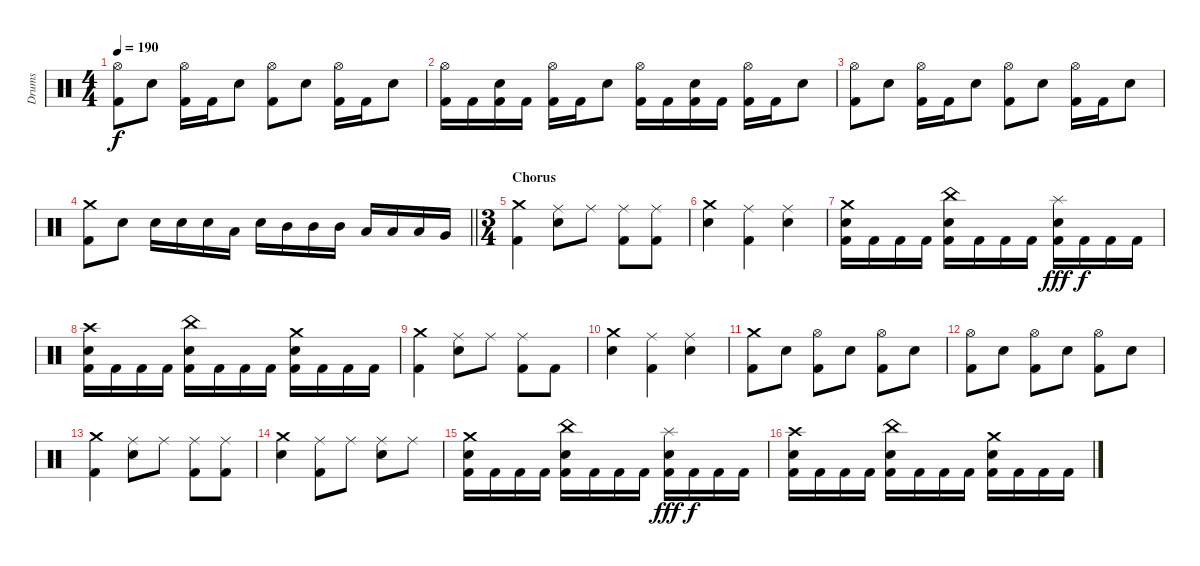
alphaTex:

\track ("Drums" "Drums") {instrument percussion}
\staff {score}
\articulation defaults
\ts (4 4)
\tempo 190
\clef neutral
\ks c
("Hi-Hat (open)" "Kick (hit) 2").8{dy f} "Electric Snare (hit)".8 ("Hi-Hat (open)" "Kick (hit) 2").16 "Kick (hit) 2".16 "Electric Snare (hit)".8 ("Hi-Hat (open)" "Kick (hit) 2").8 "Electric Snare (hit)".8 ("Hi-Hat (open)" "Kick (hit) 2").16 "Kick (hit) 2".16 "Electric Snare (hit)".8 |
("Hi-Hat (open)" "Kick (hit) 2").16 "Kick (hit) 2".16 ("Electric Snare (hit)" "Kick (hit) 2").16 "Kick (hit) 2".16 ("Hi-Hat (open)" "Kick (hit) 2").16 "Kick (hit) 2".16 "Electric Snare (hit)".8 ("Hi-Hat (open)" "Kick (hit) 2").16 "Kick (hit) 2".16 ("Electric Snare (hit)" "Kick (hit) 2").16 "Kick (hit) 2".16 ("Hi-Hat (open)" "Kick (hit) 2").16 "Kick (hit) 2".16 "Electric Snare (hit)".8 |
("Hi-Hat (open)" "Kick (hit) 2").8 "Electric Snare (hit)".8 ("Hi-Hat (open)" "Kick (hit) 2").16 "Kick (hit) 2".16 "Electric Snare (hit)".8 ("Hi-Hat (open)" "Kick (hit) 2").8 "Electric Snare (hit)".8 ("Hi-Hat (open)" "Kick (hit) 2").16 "Kick (hit) 2".16 "Electric Snare (hit)".8 |
\barLineRight lightlight
("Crash medium (hit)" "Kick (hit) 2").8 "Electric Snare (hit)".8 "Electric Snare (hit)".16 "Electric Snare (hit)".16 "Electric Snare (hit)".16 "Low Tom (hit)".16 "Electric Snare (hit)".16 "Mid Tom (hit)".16 "Mid Tom (hit)".16 "Mid Tom (hit)".16 "Low Tom (hit)".16 "Low Tom (hit)".16 "Low Tom (hit)".16 "Very Low Tom (hit)".16 |
\ts (3 4)
\section ("" "Chorus")
("Crash medium (hit)" "Kick (hit) 2").4 ("Ride (middle)" "Electric Snare (hit)").8 "Ride (middle)".8 ("Ride (middle)" "Kick (hit) 2").8 ("Ride (middle)" "Kick (hit) 2").8 |
("Crash medium (hit)" "Electric Snare (hit)").4 ("Ride (middle)" "Kick (hit) 2").4 ("Ride (middle)" "Electric Snare (hit)").4 |
("Crash medium (hit)" "Electric Snare (hit)" "Kick (hit) 2").16 "Kick (hit) 2".16 "Kick (hit) 2".16 "Kick (hit) 2".16 ("China (hit)" "Electric Snare (hit)" "Kick (hit) 2").16 "Kick (hit) 2".16 "Kick (hit) 2".16 "Kick (hit) 2".16 ("Splash (hit)" "Electric Snare (hit)" "Kick (hit) 2").16{dy fff} "Kick (hit) 2".16{dy f} "Kick (hit) 2".16 "Kick (hit) 2".16 |
("Crash high (hit)" "Electric Snare (hit)" "Kick (hit) 2").16 "Kick (hit) 2".16 "Kick (hit) 2".16 "Kick (hit) 2".16 ("China (hit)" "Electric Snare (hit)" "Kick (hit) 2").16 "Kick (hit) 2".16 "Kick (hit) 2".16 "Kick (hit) 2".16 ("Crash medium (hit)" "Electric Snare (hit)" "Kick (hit) 2").16 "Kick (hit) 2".16 "Kick (hit) 2".16 "Kick (hit) 2".16 |
("Crash medium (hit)" "Kick (hit) 2").4 ("Ride (middle)" "Electric Snare (hit)").8 "Ride (middle)".8 ("Ride (middle)" "Kick (hit) 2").8 "Kick (hit) 2".8 |
("Crash medium (hit)" "Electric Snare (hit)").4 ("Ride (middle)" "Kick (hit) 2").4 ("Ride (middle)" "Electric Snare (hit)").4 |
("Crash medium (hit)" "Kick (hit) 2").8 "Electric Snare (hit)".8 ("Hi-Hat (open)" "Kick (hit) 2").8 "Electric Snare (hit)".8 ("Hi-Hat (open)" "Kick (hit) 2").8 "Electric Snare (hit)".8 |
("Hi-Hat (open)" "Kick (hit) 2").8 "Electric Snare (hit)".8 ("Hi-Hat (open)" "Kick (hit) 2").8 "Electric Snare (hit)".8 ("Hi-Hat (open)" "Kick (hit) 2").8 "Electric Snare (hit)".8 |
("Crash medium (hit)" "Kick (hit) 2").4 ("Ride (middle)" "Electric Snare (hit)").8 "Ride (middle)".8 ("Ride (middle)" "Kick (hit) 2").8 ("Ride (middle)" "Kick (hit) 2").8 |
("Crash medium (hit)" "Electric Snare (hit)").4 ("Ride (middle)" "Kick (hit) 2").8 "Ride (middle)".8 ("Ride (middle)" "Electric Snare (hit)").8 "Ride (middle)".8 |
("Crash medium (hit)" "Electric Snare (hit)" "Kick (hit) 2").16 "Kick (hit) 2".16 "Kick (hit) 2".16 "Kick (hit) 2".16 ("China (hit)" "Electric Snare (hit)" "Kick (hit) 2").16 "Kick (hit) 2".16 "Kick (hit) 2".16 "Kick (hit) 2".16 ("Splash (hit)" "Electric Snare (hit)" "Kick (hit) 2").16{dy fff} "Kick (hit) 2".16{dy f} "Kick (hit) 2".16 "Kick (hit) 2".16 |
("Crash high (hit)" "Electric Snare (hit)" "Kick (hit) 2").16 "Kick (hit) 2".16 "Kick (hit) 2".16 "Kick (hit) 2".16 ("China (hit)" "Electric Snare (hit)" "Kick (hit) 2").16 "Kick (hit) 2".16 "Kick (hit) 2".16 "Kick (hit) 2".16 ("Crash medium (hit)" "Electric Snare (hit)" "Kick (hit) 2").16 "Kick (hit) 2".16 "Kick (hit) 2".16 "Kick (hit) 2".16
